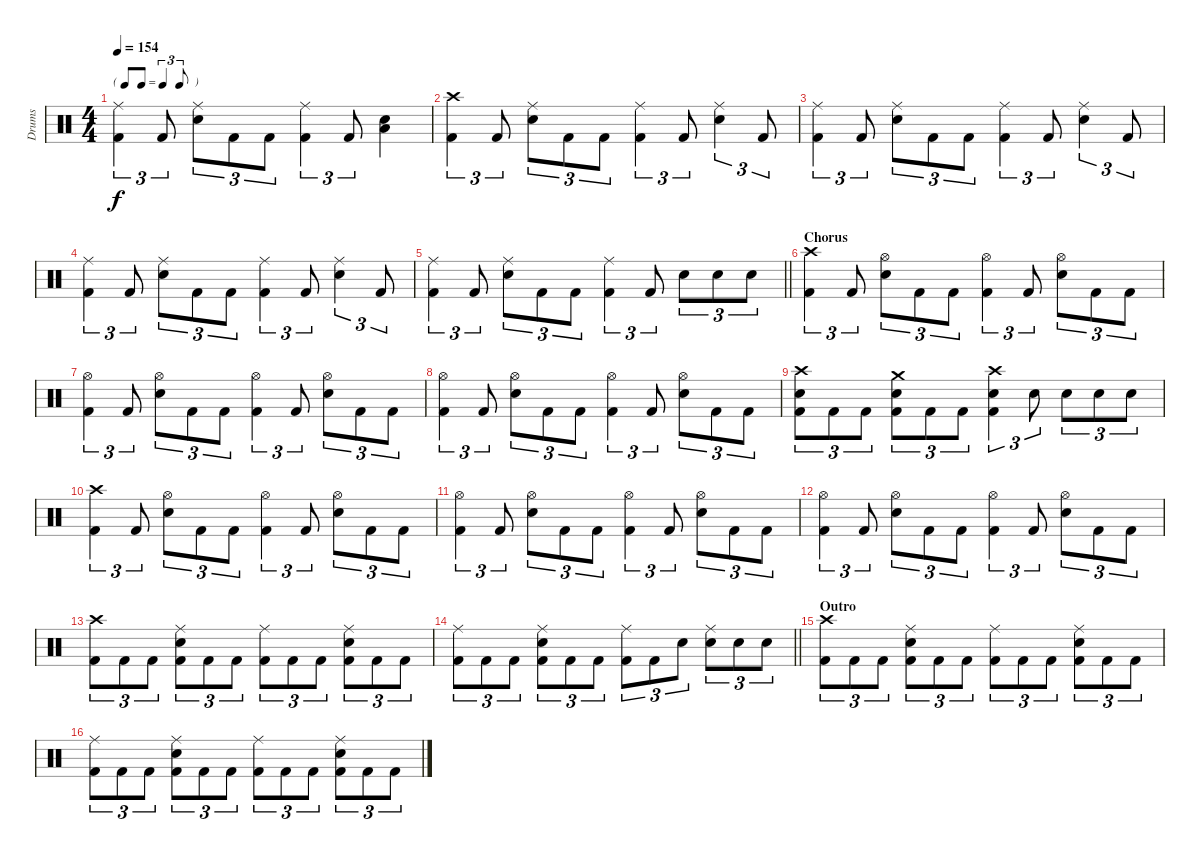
\track ("Drums" "Drums") {instrument percussion}
\staff {score}
\articulation defaults
\ts (4 4)
\tf triplet8th
\tempo 154
\clef neutral
\ks c
("Ride (middle)" "Kick (hit) 2").4{tu (3 2) dy f} "Kick (hit) 2".8{tu (3 2)} ("Ride (middle)" "Snare (hit) 2").8{tu (3 2)} "Kick (hit) 2".8{tu (3 2)} "Kick (hit) 2".8{tu (3 2)} ("Ride (middle)" "Kick (hit) 2").4{tu (3 2)} "Kick (hit) 2".8{tu (3 2)} ("Snare (hit) 2" "Low Floor Tom (hit)").4 |
("Crash high (hit)" "Kick (hit) 2").4{tu (3 2)} "Kick (hit) 2".8{tu (3 2)} ("Ride (middle)" "Snare (hit) 2").8{tu (3 2)} "Kick (hit) 2".8{tu (3 2)} "Kick (hit) 2".8{tu (3 2)} ("Ride (middle)" "Kick (hit) 2").4{tu (3 2)} "Kick (hit) 2".8{tu (3 2)} ("Ride (middle)" "Snare (hit) 2").4{tu (3 2)} "Kick (hit) 2".8{tu (3 2)} |
("Ride (middle)" "Kick (hit) 2").4{tu (3 2)} "Kick (hit) 2".8{tu (3 2)} ("Ride (middle)" "Snare (hit) 2").8{tu (3 2)} "Kick (hit) 2".8{tu (3 2)} "Kick (hit) 2".8{tu (3 2)} ("Ride (middle)" "Kick (hit) 2").4{tu (3 2)} "Kick (hit) 2".8{tu (3 2)} ("Ride (middle)" "Snare (hit) 2").4{tu (3 2)} "Kick (hit) 2".8{tu (3 2)} |
("Ride (middle)" "Kick (hit) 2").4{tu (3 2)} "Kick (hit) 2".8{tu (3 2)} ("Ride (middle)" "Snare (hit) 2").8{tu (3 2)} "Kick (hit) 2".8{tu (3 2)} "Kick (hit) 2".8{tu (3 2)} ("Ride (middle)" "Kick (hit) 2").4{tu (3 2)} "Kick (hit) 2".8{tu (3 2)} ("Ride (middle)" "Snare (hit) 2").4{tu (3 2)} "Kick (hit) 2".8{tu (3 2)} |
\barLineRight lightlight
("Ride (middle)" "Kick (hit) 2").4{tu (3 2)} "Kick (hit) 2".8{tu (3 2)} ("Ride (middle)" "Snare (hit) 2").8{tu (3 2)} "Kick (hit) 2".8{tu (3 2)} "Kick (hit) 2".8{tu (3 2)} ("Ride (middle)" "Kick (hit) 2").4{tu (3 2)} "Kick (hit) 2".8{tu (3 2)} "Snare (hit) 2".8{tu (3 2)} "Snare (hit) 2".8{tu (3 2)} "Snare (hit) 2".8{tu (3 2)} |
\section ("" "Chorus")
("Crash high (hit)" "Kick (hit) 2").4{tu (3 2)} "Kick (hit) 2".8{tu (3 2)} ("Hi-Hat (open)" "Snare (hit) 2").8{tu (3 2)} "Kick (hit) 2".8{tu (3 2)} "Kick (hit) 2".8{tu (3 2)} ("Hi-Hat (open)" "Kick (hit) 2").4{tu (3 2)} "Kick (hit) 2".8{tu (3 2)} ("Hi-Hat (open)" "Snare (hit) 2").8{tu (3 2)} "Kick (hit) 2".8{tu (3 2)} "Kick (hit) 2".8{tu (3 2)} |
("Hi-Hat (open)" "Kick (hit) 2").4{tu (3 2)} "Kick (hit) 2".8{tu (3 2)} ("Hi-Hat (open)" "Snare (hit) 2").8{tu (3 2)} "Kick (hit) 2".8{tu (3 2)} "Kick (hit) 2".8{tu (3 2)} ("Hi-Hat (open)" "Kick (hit) 2").4{tu (3 2)} "Kick (hit) 2".8{tu (3 2)} ("Hi-Hat (open)" "Snare (hit) 2").8{tu (3 2)} "Kick (hit) 2".8{tu (3 2)} "Kick (hit) 2".8{tu (3 2)} |
("Hi-Hat (open)" "Kick (hit) 2").4{tu (3 2)} "Kick (hit) 2".8{tu (3 2)} ("Hi-Hat (open)" "Snare (hit) 2").8{tu (3 2)} "Kick (hit) 2".8{tu (3 2)} "Kick (hit) 2".8{tu (3 2)} ("Hi-Hat (open)" "Kick (hit) 2").4{tu (3 2)} "Kick (hit) 2".8{tu (3 2)} ("Hi-Hat (open)" "Snare (hit) 2").8{tu (3 2)} "Kick (hit) 2".8{tu (3 2)} "Kick (hit) 2".8{tu (3 2)} |
("Crash high (hit)" "Snare (hit) 2" "Kick (hit) 2").8{tu (3 2)} "Kick (hit) 2".8{tu (3 2)} "Kick (hit) 2".8{tu (3 2)} ("Crash medium (hit)" "Snare (hit) 2" "Kick (hit) 2").8{tu (3 2)} "Kick (hit) 2".8{tu (3 2)} "Kick (hit) 2".8{tu (3 2)} ("Crash high (hit)" "Snare (hit) 2" "Kick (hit) 2").4{tu (3 2)} "Snare (hit) 2".8{tu (3 2)} "Snare (hit) 2".8{tu (3 2)} "Snare (hit) 2".8{tu (3 2)} "Snare (hit) 2".8{tu (3 2)} |
("Crash high (hit)" "Kick (hit) 2").4{tu (3 2)} "Kick (hit) 2".8{tu (3 2)} ("Hi-Hat (open)" "Snare (hit) 2").8{tu (3 2)} "Kick (hit) 2".8{tu (3 2)} "Kick (hit) 2".8{tu (3 2)} ("Hi-Hat (open)" "Kick (hit) 2").4{tu (3 2)} "Kick (hit) 2".8{tu (3 2)} ("Hi-Hat (open)" "Snare (hit) 2").8{tu (3 2)} "Kick (hit) 2".8{tu (3 2)} "Kick (hit) 2".8{tu (3 2)} |
("Hi-Hat (open)" "Kick (hit) 2").4{tu (3 2)} "Kick (hit) 2".8{tu (3 2)} ("Hi-Hat (open)" "Snare (hit) 2").8{tu (3 2)} "Kick (hit) 2".8{tu (3 2)} "Kick (hit) 2".8{tu (3 2)} ("Hi-Hat (open)" "Kick (hit) 2").4{tu (3 2)} "Kick (hit) 2".8{tu (3 2)} ("Hi-Hat (open)" "Snare (hit) 2").8{tu (3 2)} "Kick (hit) 2".8{tu (3 2)} "Kick (hit) 2".8{tu (3 2)} |
("Hi-Hat (open)" "Kick (hit) 2").4{tu (3 2)} "Kick (hit) 2".8{tu (3 2)} ("Hi-Hat (open)" "Snare (hit) 2").8{tu (3 2)} "Kick (hit) 2".8{tu (3 2)} "Kick (hit) 2".8{tu (3 2)} ("Hi-Hat (open)" "Kick (hit) 2").4{tu (3 2)} "Kick (hit) 2".8{tu (3 2)} ("Hi-Hat (open)" "Snare (hit) 2").8{tu (3 2)} "Kick (hit) 2".8{tu (3 2)} "Kick (hit) 2".8{tu (3 2)} |
("Crash high (hit)" "Kick (hit) 2").8{tu (3 2)} "Kick (hit) 2".8{tu (3 2)} "Kick (hit) 2".8{tu (3 2)} ("Ride (middle)" "Snare (hit) 2" "Kick (hit) 2").8{tu (3 2)} "Kick (hit) 2".8{tu (3 2)} "Kick (hit) 2".8{tu (3 2)} ("Ride (middle)" "Kick (hit) 2").8{tu (3 2)} "Kick (hit) 2".8{tu (3 2)} "Kick (hit) 2".8{tu (3 2)} ("Ride (middle)" "Snare (hit) 2" "Kick (hit) 2").8{tu (3 2)} "Kick (hit) 2".8{tu (3 2)} "Kick (hit) 2".8{tu (3 2)} |
\barLineRight lightlight
("Ride (middle)" "Kick (hit) 2").8{tu (3 2)} "Kick (hit) 2".8{tu (3 2)} "Kick (hit) 2".8{tu (3 2)} ("Ride (middle)" "Snare (hit) 2" "Kick (hit) 2").8{tu (3 2)} "Kick (hit) 2".8{tu (3 2)} "Kick (hit) 2".8{tu (3 2)} ("Ride (middle)" "Kick (hit) 2").8{tu (3 2)} "Kick (hit) 2".8{tu (3 2)} "Snare (hit) 2".8{tu (3 2)} ("Ride (middle)" "Snare (hit) 2").8{tu (3 2)} "Snare (hit) 2".8{tu (3 2)} "Snare (hit) 2".8{tu (3 2)} |
\section ("" "Outro")
("Crash high (hit)" "Kick (hit) 2").8{tu (3 2)} "Kick (hit) 2".8{tu (3 2)} "Kick (hit) 2".8{tu (3 2)} ("Ride (middle)" "Snare (hit) 2" "Kick (hit) 2").8{tu (3 2)} "Kick (hit) 2".8{tu (3 2)} "Kick (hit) 2".8{tu (3 2)} ("Ride (middle)" "Kick (hit) 2").8{tu (3 2)} "Kick (hit) 2".8{tu (3 2)} "Kick (hit) 2".8{tu (3 2)} ("Ride (middle)" "Snare (hit) 2" "Kick (hit) 2").8{tu (3 2)} "Kick (hit) 2".8{tu (3 2)} "Kick (hit) 2".8{tu (3 2)} |
("Ride (middle)" "Kick (hit) 2").8{tu (3 2)} "Kick (hit) 2".8{tu (3 2)} "Kick (hit) 2".8{tu (3 2)} ("Ride (middle)" "Snare (hit) 2" "Kick (hit) 2").8{tu (3 2)} "Kick (hit) 2".8{tu (3 2)} "Kick (hit) 2".8{tu (3 2)} ("Ride (middle)" "Kick (hit) 2").8{tu (3 2)} "Kick (hit) 2".8{tu (3 2)} "Kick (hit) 2".8{tu (3 2)} ("Ride (middle)" "Snare (hit) 2" "Kick (hit) 2").8{tu (3 2)} "Kick (hit) 2".8{tu (3 2)} "Kick (hit) 2".8{tu (3 2)}
